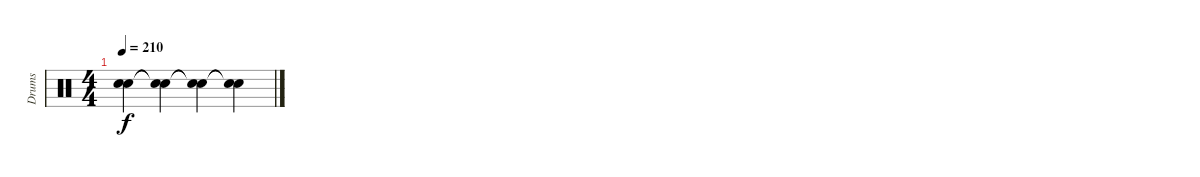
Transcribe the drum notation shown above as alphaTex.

\track ("Drums" "Drums") {instrument percussion}
\staff {score}
\articulation defaults
\ts (4 4)
\tempo 210
\clef neutral
\ks c
("Snare (hit)"{t} "Snare (hit)"{t}).4{dy f} ("Snare (hit)"{t} "Snare (hit)"{t}).4 ("Snare (hit)"{t} "Snare (hit)"{t}).4 ("Snare (hit)"{t} "Snare (hit)"{t}).4
